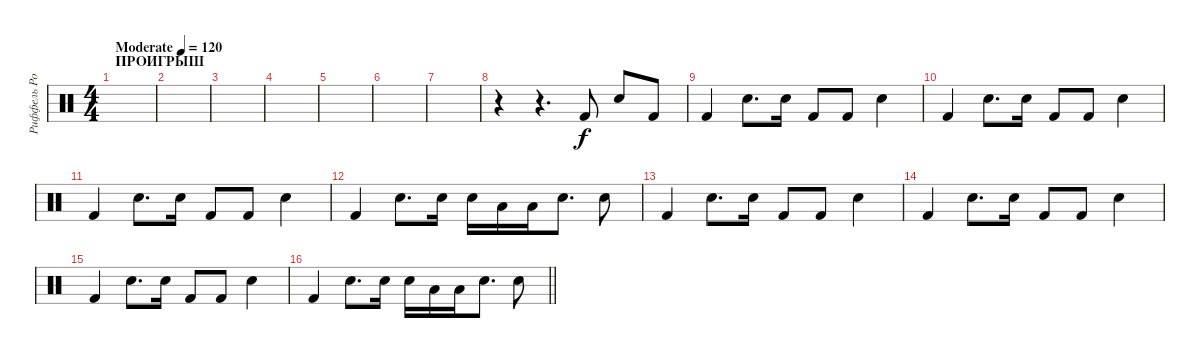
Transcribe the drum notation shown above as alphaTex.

\track ("Риффель Роман(главные)" "Риффель Ро") {instrument percussion}
\staff {score}
\articulation defaults
\ts (4 4)
\section ("" "ПРОИГРЫШ")
\tempo (120 "Moderate")
\clef neutral
\ks c
|
|
|
|
|
|
|
r.4 r.4{d} "Kick (hit) 2".8 "Electric Snare (hit)".8 "Kick (hit) 2".8 |
"Kick (hit) 2".4 "Electric Snare (hit)".8{d} "Electric Snare (hit)".16 "Kick (hit) 2".8 "Kick (hit) 2".8 "Electric Snare (hit)".4 |
"Kick (hit) 2".4 "Electric Snare (hit)".8{d} "Electric Snare (hit)".16 "Kick (hit) 2".8 "Kick (hit) 2".8 "Electric Snare (hit)".4 |
"Kick (hit) 2".4 "Electric Snare (hit)".8{d} "Electric Snare (hit)".16 "Kick (hit) 2".8 "Kick (hit) 2".8 "Electric Snare (hit)".4 |
"Kick (hit) 2".4 "Electric Snare (hit)".8{d} "Electric Snare (hit)".16 "Electric Snare (hit)".16 "Low Tom (hit)".16 "Low Tom (hit)".16 "Electric Snare (hit)".8{d} "Electric Snare (hit)".8 |
"Kick (hit) 2".4 "Electric Snare (hit)".8{d} "Electric Snare (hit)".16 "Kick (hit) 2".8 "Kick (hit) 2".8 "Electric Snare (hit)".4 |
"Kick (hit) 2".4 "Electric Snare (hit)".8{d} "Electric Snare (hit)".16 "Kick (hit) 2".8 "Kick (hit) 2".8 "Electric Snare (hit)".4 |
"Kick (hit) 2".4 "Electric Snare (hit)".8{d} "Electric Snare (hit)".16 "Kick (hit) 2".8 "Kick (hit) 2".8 "Electric Snare (hit)".4 |
\barLineRight lightlight "Kick (hit) 2".4 "Electric Snare (hit)".8{d} "Electric Snare (hit)".16 "Electric Snare (hit)".16 "Low Tom (hit)".16 "Low Tom (hit)".16 "Electric Snare (hit)".8{d} "Electric Snare (hit)".8
